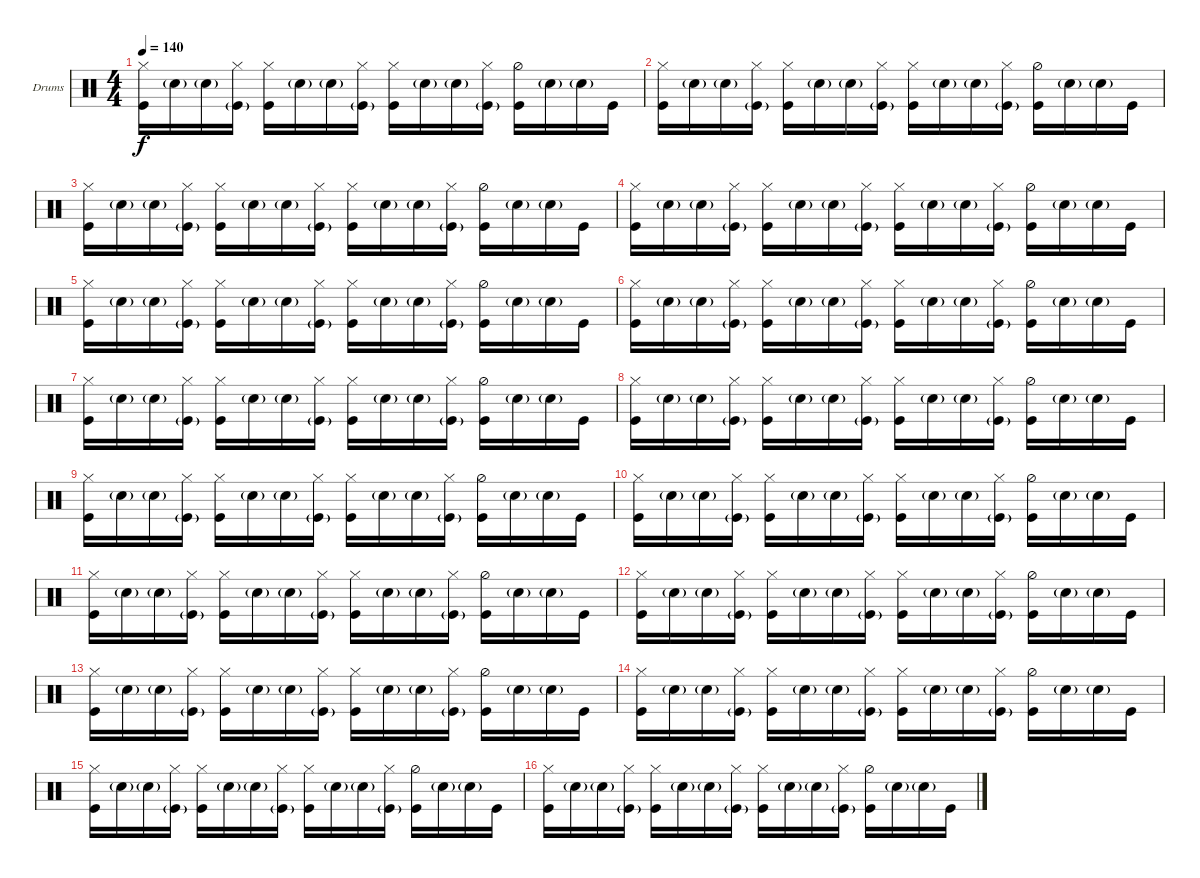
\defaultSystemsLayout 4
\bracketExtendMode nobrackets
\firstSystemTrackNameOrientation horizontal
\otherSystemsTrackNameOrientation horizontal
\track ("Nazar" "Drums") {instrument percussion}
\staff {score}
\articulation defaults
\ts (4 4)
\tempo 140
\clef neutral
\scale
0.333333
\ks c
("Hi-Hat (closed)" "Kick (hit)").16{dy f} "Snare (hit) 2"{g}.16 "Snare (hit) 2"{g}.16 ("Kick (hit)"{g} "Hi-Hat (closed)").16 ("Kick (hit)" "Hi-Hat (closed)").16 "Snare (hit) 2"{g}.16 "Snare (hit) 2"{g}.16 ("Kick (hit)"{g} "Hi-Hat (closed)").16 ("Kick (hit)" "Hi-Hat (closed)").16 "Snare (hit) 2"{g}.16 "Snare (hit) 2"{g}.16 ("Kick (hit)"{g} "Hi-Hat (closed)").16 ("Kick (hit)" "Hi-Hat (half)").16 "Snare (hit) 2"{g}.16 "Snare (hit) 2"{g}.16 "Kick (hit)".16 |
\scale
0.333333 ("Hi-Hat (closed)" "Kick (hit)").16 "Snare (hit) 2"{g}.16 "Snare (hit) 2"{g}.16 ("Kick (hit)"{g} "Hi-Hat (closed)").16 ("Kick (hit)" "Hi-Hat (closed)").16 "Snare (hit) 2"{g}.16 "Snare (hit) 2"{g}.16 ("Kick (hit)"{g} "Hi-Hat (closed)").16 ("Kick (hit)" "Hi-Hat (closed)").16 "Snare (hit) 2"{g}.16 "Snare (hit) 2"{g}.16 ("Kick (hit)"{g} "Hi-Hat (closed)").16 ("Kick (hit)" "Hi-Hat (half)").16 "Snare (hit) 2"{g}.16 "Snare (hit) 2"{g}.16 "Kick (hit)".16 |
\scale
0.333333 ("Hi-Hat (closed)" "Kick (hit)").16 "Snare (hit) 2"{g}.16 "Snare (hit) 2"{g}.16 ("Kick (hit)"{g} "Hi-Hat (closed)").16 ("Kick (hit)" "Hi-Hat (closed)").16 "Snare (hit) 2"{g}.16 "Snare (hit) 2"{g}.16 ("Kick (hit)"{g} "Hi-Hat (closed)").16 ("Kick (hit)" "Hi-Hat (closed)").16 "Snare (hit) 2"{g}.16 "Snare (hit) 2"{g}.16 ("Kick (hit)"{g} "Hi-Hat (closed)").16 ("Kick (hit)" "Hi-Hat (half)").16 "Snare (hit) 2"{g}.16 "Snare (hit) 2"{g}.16 "Kick (hit)".16 |
\scale
0.333333 ("Hi-Hat (closed)" "Kick (hit)").16 "Snare (hit) 2"{g}.16 "Snare (hit) 2"{g}.16 ("Kick (hit)"{g} "Hi-Hat (closed)").16 ("Kick (hit)" "Hi-Hat (closed)").16 "Snare (hit) 2"{g}.16 "Snare (hit) 2"{g}.16 ("Kick (hit)"{g} "Hi-Hat (closed)").16 ("Kick (hit)" "Hi-Hat (closed)").16 "Snare (hit) 2"{g}.16 "Snare (hit) 2"{g}.16 ("Kick (hit)"{g} "Hi-Hat (closed)").16 ("Kick (hit)" "Hi-Hat (half)").16 "Snare (hit) 2"{g}.16 "Snare (hit) 2"{g}.16 "Kick (hit)".16 |
\scale
0.333333 ("Hi-Hat (closed)" "Kick (hit)").16 "Snare (hit) 2"{g}.16 "Snare (hit) 2"{g}.16 ("Kick (hit)"{g} "Hi-Hat (closed)").16 ("Kick (hit)" "Hi-Hat (closed)").16 "Snare (hit) 2"{g}.16 "Snare (hit) 2"{g}.16 ("Kick (hit)"{g} "Hi-Hat (closed)").16 ("Kick (hit)" "Hi-Hat (closed)").16 "Snare (hit) 2"{g}.16 "Snare (hit) 2"{g}.16 ("Kick (hit)"{g} "Hi-Hat (closed)").16 ("Kick (hit)" "Hi-Hat (half)").16 "Snare (hit) 2"{g}.16 "Snare (hit) 2"{g}.16 "Kick (hit)".16 |
\scale
0.333333 ("Hi-Hat (closed)" "Kick (hit)").16 "Snare (hit) 2"{g}.16 "Snare (hit) 2"{g}.16 ("Kick (hit)"{g} "Hi-Hat (closed)").16 ("Kick (hit)" "Hi-Hat (closed)").16 "Snare (hit) 2"{g}.16 "Snare (hit) 2"{g}.16 ("Kick (hit)"{g} "Hi-Hat (closed)").16 ("Kick (hit)" "Hi-Hat (closed)").16 "Snare (hit) 2"{g}.16 "Snare (hit) 2"{g}.16 ("Kick (hit)"{g} "Hi-Hat (closed)").16 ("Kick (hit)" "Hi-Hat (half)").16 "Snare (hit) 2"{g}.16 "Snare (hit) 2"{g}.16 "Kick (hit)".16 |
\scale
0.333333 ("Hi-Hat (closed)" "Kick (hit)").16 "Snare (hit) 2"{g}.16 "Snare (hit) 2"{g}.16 ("Kick (hit)"{g} "Hi-Hat (closed)").16 ("Kick (hit)" "Hi-Hat (closed)").16 "Snare (hit) 2"{g}.16 "Snare (hit) 2"{g}.16 ("Kick (hit)"{g} "Hi-Hat (closed)").16 ("Kick (hit)" "Hi-Hat (closed)").16 "Snare (hit) 2"{g}.16 "Snare (hit) 2"{g}.16 ("Kick (hit)"{g} "Hi-Hat (closed)").16 ("Kick (hit)" "Hi-Hat (half)").16 "Snare (hit) 2"{g}.16 "Snare (hit) 2"{g}.16 "Kick (hit)".16 |
\scale
0.333333 ("Hi-Hat (closed)" "Kick (hit)").16 "Snare (hit) 2"{g}.16 "Snare (hit) 2"{g}.16 ("Kick (hit)"{g} "Hi-Hat (closed)").16 ("Kick (hit)" "Hi-Hat (closed)").16 "Snare (hit) 2"{g}.16 "Snare (hit) 2"{g}.16 ("Kick (hit)"{g} "Hi-Hat (closed)").16 ("Kick (hit)" "Hi-Hat (closed)").16 "Snare (hit) 2"{g}.16 "Snare (hit) 2"{g}.16 ("Kick (hit)"{g} "Hi-Hat (closed)").16 ("Kick (hit)" "Hi-Hat (half)").16 "Snare (hit) 2"{g}.16 "Snare (hit) 2"{g}.16 "Kick (hit)".16 |
\scale
0.333333 ("Hi-Hat (closed)" "Kick (hit)").16 "Snare (hit) 2"{g}.16 "Snare (hit) 2"{g}.16 ("Kick (hit)"{g} "Hi-Hat (closed)").16 ("Kick (hit)" "Hi-Hat (closed)").16 "Snare (hit) 2"{g}.16 "Snare (hit) 2"{g}.16 ("Kick (hit)"{g} "Hi-Hat (closed)").16 ("Kick (hit)" "Hi-Hat (closed)").16 "Snare (hit) 2"{g}.16 "Snare (hit) 2"{g}.16 ("Kick (hit)"{g} "Hi-Hat (closed)").16 ("Kick (hit)" "Hi-Hat (half)").16 "Snare (hit) 2"{g}.16 "Snare (hit) 2"{g}.16 "Kick (hit)".16 |
\scale
0.333333 ("Hi-Hat (closed)" "Kick (hit)").16 "Snare (hit) 2"{g}.16 "Snare (hit) 2"{g}.16 ("Kick (hit)"{g} "Hi-Hat (closed)").16 ("Kick (hit)" "Hi-Hat (closed)").16 "Snare (hit) 2"{g}.16 "Snare (hit) 2"{g}.16 ("Kick (hit)"{g} "Hi-Hat (closed)").16 ("Kick (hit)" "Hi-Hat (closed)").16 "Snare (hit) 2"{g}.16 "Snare (hit) 2"{g}.16 ("Kick (hit)"{g} "Hi-Hat (closed)").16 ("Kick (hit)" "Hi-Hat (half)").16 "Snare (hit) 2"{g}.16 "Snare (hit) 2"{g}.16 "Kick (hit)".16 |
\scale
0.333333 ("Hi-Hat (closed)" "Kick (hit)").16 "Snare (hit) 2"{g}.16 "Snare (hit) 2"{g}.16 ("Kick (hit)"{g} "Hi-Hat (closed)").16 ("Kick (hit)" "Hi-Hat (closed)").16 "Snare (hit) 2"{g}.16 "Snare (hit) 2"{g}.16 ("Kick (hit)"{g} "Hi-Hat (closed)").16 ("Kick (hit)" "Hi-Hat (closed)").16 "Snare (hit) 2"{g}.16 "Snare (hit) 2"{g}.16 ("Kick (hit)"{g} "Hi-Hat (closed)").16 ("Kick (hit)" "Hi-Hat (half)").16 "Snare (hit) 2"{g}.16 "Snare (hit) 2"{g}.16 "Kick (hit)".16 |
\scale
0.333333 ("Hi-Hat (closed)" "Kick (hit)").16 "Snare (hit) 2"{g}.16 "Snare (hit) 2"{g}.16 ("Kick (hit)"{g} "Hi-Hat (closed)").16 ("Kick (hit)" "Hi-Hat (closed)").16 "Snare (hit) 2"{g}.16 "Snare (hit) 2"{g}.16 ("Kick (hit)"{g} "Hi-Hat (closed)").16 ("Kick (hit)" "Hi-Hat (closed)").16 "Snare (hit) 2"{g}.16 "Snare (hit) 2"{g}.16 ("Kick (hit)"{g} "Hi-Hat (closed)").16 ("Kick (hit)" "Hi-Hat (half)").16 "Snare (hit) 2"{g}.16 "Snare (hit) 2"{g}.16 "Kick (hit)".16 |
\scale
0.333333 ("Hi-Hat (closed)" "Kick (hit)").16 "Snare (hit) 2"{g}.16 "Snare (hit) 2"{g}.16 ("Kick (hit)"{g} "Hi-Hat (closed)").16 ("Kick (hit)" "Hi-Hat (closed)").16 "Snare (hit) 2"{g}.16 "Snare (hit) 2"{g}.16 ("Kick (hit)"{g} "Hi-Hat (closed)").16 ("Kick (hit)" "Hi-Hat (closed)").16 "Snare (hit) 2"{g}.16 "Snare (hit) 2"{g}.16 ("Kick (hit)"{g} "Hi-Hat (closed)").16 ("Kick (hit)" "Hi-Hat (half)").16 "Snare (hit) 2"{g}.16 "Snare (hit) 2"{g}.16 "Kick (hit)".16 |
\scale
0.333333 ("Hi-Hat (closed)" "Kick (hit)").16 "Snare (hit) 2"{g}.16 "Snare (hit) 2"{g}.16 ("Kick (hit)"{g} "Hi-Hat (closed)").16 ("Kick (hit)" "Hi-Hat (closed)").16 "Snare (hit) 2"{g}.16 "Snare (hit) 2"{g}.16 ("Kick (hit)"{g} "Hi-Hat (closed)").16 ("Kick (hit)" "Hi-Hat (closed)").16 "Snare (hit) 2"{g}.16 "Snare (hit) 2"{g}.16 ("Kick (hit)"{g} "Hi-Hat (closed)").16 ("Kick (hit)" "Hi-Hat (half)").16 "Snare (hit) 2"{g}.16 "Snare (hit) 2"{g}.16 "Kick (hit)".16 |
\scale
0.333333 ("Hi-Hat (closed)" "Kick (hit)").16 "Snare (hit) 2"{g}.16 "Snare (hit) 2"{g}.16 ("Kick (hit)"{g} "Hi-Hat (closed)").16 ("Kick (hit)" "Hi-Hat (closed)").16 "Snare (hit) 2"{g}.16 "Snare (hit) 2"{g}.16 ("Kick (hit)"{g} "Hi-Hat (closed)").16 ("Kick (hit)" "Hi-Hat (closed)").16 "Snare (hit) 2"{g}.16 "Snare (hit) 2"{g}.16 ("Kick (hit)"{g} "Hi-Hat (closed)").16 ("Kick (hit)" "Hi-Hat (half)").16 "Snare (hit) 2"{g}.16 "Snare (hit) 2"{g}.16 "Kick (hit)".16 |
\scale
0.333333 ("Hi-Hat (closed)" "Kick (hit)").16 "Snare (hit) 2"{g}.16 "Snare (hit) 2"{g}.16 ("Kick (hit)"{g} "Hi-Hat (closed)").16 ("Kick (hit)" "Hi-Hat (closed)").16 "Snare (hit) 2"{g}.16 "Snare (hit) 2"{g}.16 ("Kick (hit)"{g} "Hi-Hat (closed)").16 ("Kick (hit)" "Hi-Hat (closed)").16 "Snare (hit) 2"{g}.16 "Snare (hit) 2"{g}.16 ("Kick (hit)"{g} "Hi-Hat (closed)").16 ("Kick (hit)" "Hi-Hat (half)").16 "Snare (hit) 2"{g}.16 "Snare (hit) 2"{g}.16 "Kick (hit)".16
